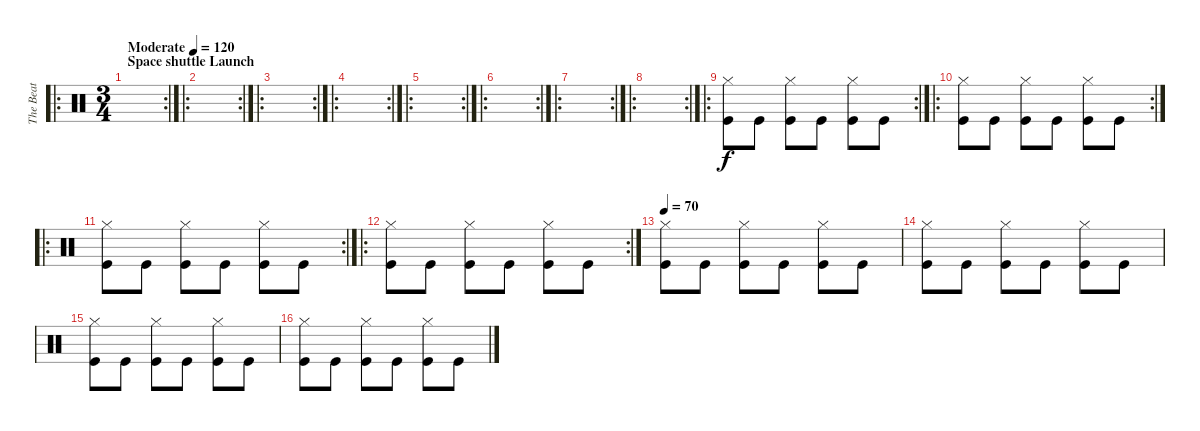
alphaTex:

\track ("The Beat" "The Beat") {instrument percussion}
\staff {score}
\articulation defaults
\ro
\rc 2
\ts (3 4)
\section ("" "Space shuttle Launch")
\tempo (120 "Moderate")
\clef neutral
\ks c
|
\ro
\rc 2
|
\ro
\rc 2
|
\ro
\rc 2
|
\ro
\rc 2
|
\ro
\rc 2
|
\ro
\rc 2
|
\ro
\rc 2
|
\ro
\rc 2
("Kick (hit)" "Hi-Hat (closed)").8 "Kick (hit)".8 ("Kick (hit)" "Hi-Hat (closed)").8 "Kick (hit)".8 ("Kick (hit)" "Hi-Hat (closed)").8 "Kick (hit)".8 |
\ro
\rc 2
("Kick (hit)" "Hi-Hat (closed)").8 "Kick (hit)".8 ("Kick (hit)" "Hi-Hat (closed)").8 "Kick (hit)".8 ("Kick (hit)" "Hi-Hat (closed)").8 "Kick (hit)".8 |
\ro
\rc 2
("Kick (hit)" "Hi-Hat (closed)").8 "Kick (hit)".8 ("Kick (hit)" "Hi-Hat (closed)").8 "Kick (hit)".8 ("Kick (hit)" "Hi-Hat (closed)").8 "Kick (hit)".8 |
\ro
\rc 2
("Kick (hit)" "Hi-Hat (closed)").8 "Kick (hit)".8 ("Kick (hit)" "Hi-Hat (closed)").8 "Kick (hit)".8 ("Kick (hit)" "Hi-Hat (closed)").8 "Kick (hit)".8 |
\tempo 70
("Kick (hit)" "Hi-Hat (closed)").8 "Kick (hit)".8 ("Kick (hit)" "Hi-Hat (closed)").8 "Kick (hit)".8 ("Kick (hit)" "Hi-Hat (closed)").8 "Kick (hit)".8 |
("Kick (hit)" "Hi-Hat (closed)").8 "Kick (hit)".8 ("Kick (hit)" "Hi-Hat (closed)").8 "Kick (hit)".8 ("Kick (hit)" "Hi-Hat (closed)").8 "Kick (hit)".8 |
("Kick (hit)" "Hi-Hat (closed)").8 "Kick (hit)".8 ("Kick (hit)" "Hi-Hat (closed)").8 "Kick (hit)".8 ("Kick (hit)" "Hi-Hat (closed)").8 "Kick (hit)".8 |
("Kick (hit)" "Hi-Hat (closed)").8 "Kick (hit)".8 ("Kick (hit)" "Hi-Hat (closed)").8 "Kick (hit)".8 ("Kick (hit)" "Hi-Hat (closed)").8 "Kick (hit)".8
